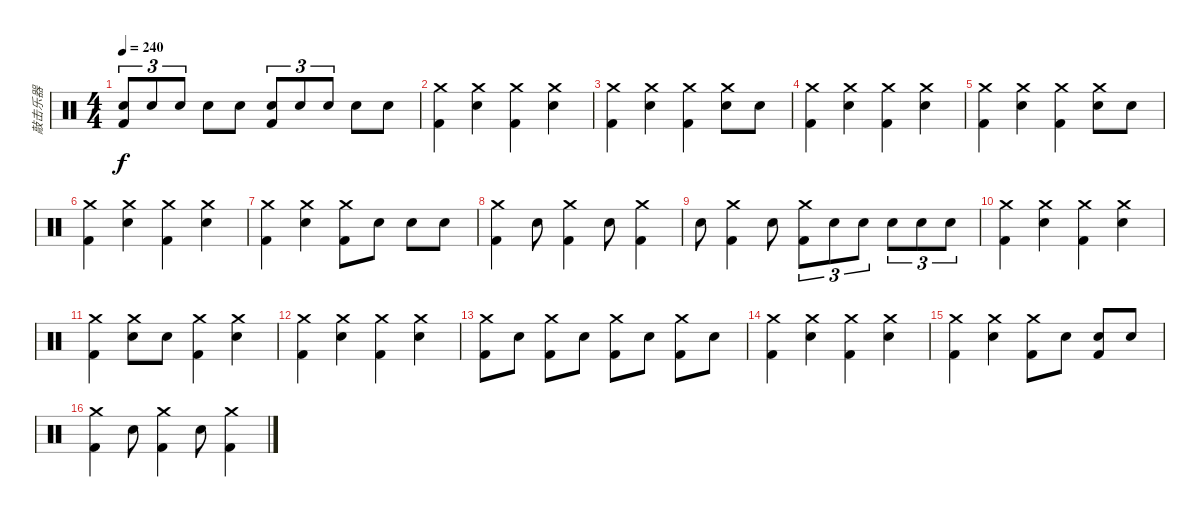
\track ("敲击乐器" "敲击乐器") {instrument percussion}
\staff {score}
\articulation defaults
\ts (4 4)
\tempo 240
\clef neutral
\ks c
("Electric Snare (hit)" "Kick (hit) 2").8{tu (3 2) dy f} "Electric Snare (hit)".8{tu (3 2)} "Electric Snare (hit)".8{tu (3 2)} "Electric Snare (hit)".8 "Electric Snare (hit)".8 ("Electric Snare (hit)" "Kick (hit) 2").8{tu (3 2)} "Electric Snare (hit)".8{tu (3 2)} "Electric Snare (hit)".8{tu (3 2)} "Electric Snare (hit)".8 "Electric Snare (hit)".8 |
("Crash medium (hit)" "Kick (hit) 2").4 ("Crash medium (hit)" "Electric Snare (hit)").4 ("Crash medium (hit)" "Kick (hit) 2").4 ("Crash medium (hit)" "Electric Snare (hit)").4 |
("Crash medium (hit)" "Kick (hit) 2").4 ("Crash medium (hit)" "Electric Snare (hit)").4 ("Crash medium (hit)" "Kick (hit) 2").4 ("Crash medium (hit)" "Electric Snare (hit)").8 "Electric Snare (hit)".8 |
("Crash medium (hit)" "Kick (hit) 2").4 ("Crash medium (hit)" "Electric Snare (hit)").4 ("Crash medium (hit)" "Kick (hit) 2").4 ("Crash medium (hit)" "Electric Snare (hit)").4 |
("Crash medium (hit)" "Kick (hit) 2").4 ("Crash medium (hit)" "Electric Snare (hit)").4 ("Crash medium (hit)" "Kick (hit) 2").4 ("Crash medium (hit)" "Electric Snare (hit)").8 "Electric Snare (hit)".8 |
("Crash medium (hit)" "Kick (hit) 2").4 ("Crash medium (hit)" "Electric Snare (hit)").4 ("Crash medium (hit)" "Kick (hit) 2").4 ("Crash medium (hit)" "Electric Snare (hit)").4 |
("Crash medium (hit)" "Kick (hit) 2").4 ("Crash medium (hit)" "Electric Snare (hit)").4 ("Crash medium (hit)" "Kick (hit) 2").8 "Electric Snare (hit)".8 "Electric Snare (hit)".8 "Electric Snare (hit)".8 |
("Crash medium (hit)" "Kick (hit) 2").4 "Electric Snare (hit)".8 ("Crash medium (hit)" "Kick (hit) 2").4 "Electric Snare (hit)".8 ("Crash medium (hit)" "Kick (hit) 2").4 |
"Electric Snare (hit)".8 ("Crash medium (hit)" "Kick (hit) 2").4 "Electric Snare (hit)".8 ("Crash medium (hit)" "Kick (hit) 2").8{tu (3 2)} "Electric Snare (hit)".8{tu (3 2)} "Electric Snare (hit)".8{tu (3 2)} "Electric Snare (hit)".8{tu (3 2)} "Electric Snare (hit)".8{tu (3 2)} "Electric Snare (hit)".8{tu (3 2)} |
("Crash medium (hit)" "Kick (hit) 2").4 ("Crash medium (hit)" "Electric Snare (hit)").4 ("Crash medium (hit)" "Kick (hit) 2").4 ("Crash medium (hit)" "Electric Snare (hit)").4 |
("Crash medium (hit)" "Kick (hit) 2").4 ("Crash medium (hit)" "Electric Snare (hit)").8 "Electric Snare (hit)".8 ("Crash medium (hit)" "Kick (hit) 2").4 ("Crash medium (hit)" "Electric Snare (hit)").4 |
("Crash medium (hit)" "Kick (hit) 2").4 ("Crash medium (hit)" "Electric Snare (hit)").4 ("Crash medium (hit)" "Kick (hit) 2").4 ("Crash medium (hit)" "Electric Snare (hit)").4 |
("Crash medium (hit)" "Kick (hit) 2").8 "Electric Snare (hit)".8 ("Crash medium (hit)" "Kick (hit) 2").8 "Electric Snare (hit)".8 ("Crash medium (hit)" "Kick (hit) 2").8 "Electric Snare (hit)".8 ("Crash medium (hit)" "Kick (hit) 2").8 "Electric Snare (hit)".8 |
("Crash medium (hit)" "Kick (hit) 2").4 ("Crash medium (hit)" "Electric Snare (hit)").4 ("Crash medium (hit)" "Kick (hit) 2").4 ("Crash medium (hit)" "Electric Snare (hit)").4 |
("Crash medium (hit)" "Kick (hit) 2").4 ("Crash medium (hit)" "Electric Snare (hit)").4 ("Crash medium (hit)" "Kick (hit) 2").8 "Electric Snare (hit)".8 ("Electric Snare (hit)" "Kick (hit) 2").8 "Electric Snare (hit)".8 |
("Crash medium (hit)" "Kick (hit) 2").4 "Electric Snare (hit)".8 ("Crash medium (hit)" "Kick (hit) 2").4 "Electric Snare (hit)".8 ("Crash medium (hit)" "Kick (hit) 2").4
